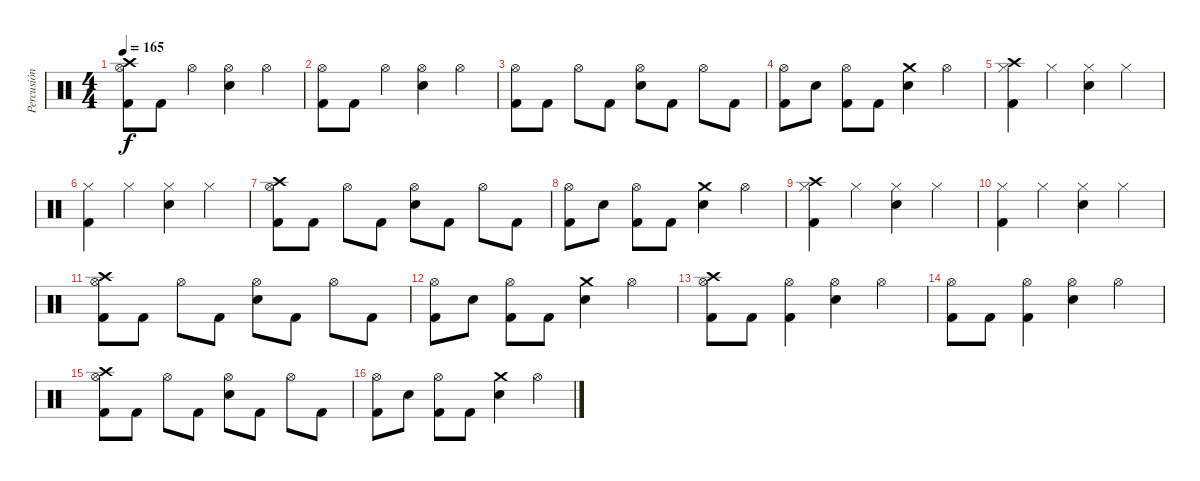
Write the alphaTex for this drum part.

\track ("Percusión" "Percusión") {instrument percussion}
\staff {score}
\articulation defaults
\ts (4 4)
\tempo 165
\clef neutral
\ks c
("Crash high (hit)" "Hi-Hat (open)" "Kick (hit) 2").8{dy f} "Kick (hit) 2".8 "Hi-Hat (open)".4 ("Hi-Hat (open)" "Snare (hit) 2").4 "Hi-Hat (open)".4 |
("Hi-Hat (open)" "Kick (hit) 2").8 "Kick (hit) 2".8 "Hi-Hat (open)".4 ("Hi-Hat (open)" "Snare (hit) 2").4 "Hi-Hat (open)".4 |
("Hi-Hat (open)" "Kick (hit) 2").8 "Kick (hit) 2".8 "Hi-Hat (open)".8 "Kick (hit) 2".8 ("Hi-Hat (open)" "Snare (hit) 2").8 "Kick (hit) 2".8 "Hi-Hat (open)".8 "Kick (hit) 2".8 |
("Hi-Hat (open)" "Kick (hit) 2").8 "Snare (hit) 2".8 ("Hi-Hat (open)" "Kick (hit) 2").8 "Kick (hit) 2".8 ("Crash medium (hit)" "Snare (hit) 2").4 "Hi-Hat (open)".4 |
("Crash high (hit)" "Hi-Hat (closed)" "Kick (hit) 2").4 "Hi-Hat (closed)".4 ("Hi-Hat (closed)" "Snare (hit) 2").4 "Hi-Hat (closed)".4 |
("Hi-Hat (closed)" "Kick (hit) 2").4 "Hi-Hat (closed)".4 ("Hi-Hat (closed)" "Snare (hit) 2").4 "Hi-Hat (closed)".4 |
("Crash high (hit)" "Hi-Hat (open)" "Kick (hit) 2").8 "Kick (hit) 2".8 "Hi-Hat (open)".8 "Kick (hit) 2".8 ("Hi-Hat (open)" "Snare (hit) 2").8 "Kick (hit) 2".8 "Hi-Hat (open)".8 "Kick (hit) 2".8 |
("Hi-Hat (open)" "Kick (hit) 2").8 "Snare (hit) 2".8 ("Hi-Hat (open)" "Kick (hit) 2").8 "Kick (hit) 2".8 ("Crash medium (hit)" "Snare (hit) 2").4 "Hi-Hat (open)".4 |
("Crash high (hit)" "Hi-Hat (closed)" "Kick (hit) 2").4 "Hi-Hat (closed)".4 ("Hi-Hat (closed)" "Snare (hit) 2").4 "Hi-Hat (closed)".4 |
("Hi-Hat (closed)" "Kick (hit) 2").4 "Hi-Hat (closed)".4 ("Hi-Hat (closed)" "Snare (hit) 2").4 "Hi-Hat (closed)".4 |
("Crash high (hit)" "Hi-Hat (open)" "Kick (hit) 2").8 "Kick (hit) 2".8 "Hi-Hat (open)".8 "Kick (hit) 2".8 ("Hi-Hat (open)" "Snare (hit) 2").8 "Kick (hit) 2".8 "Hi-Hat (open)".8 "Kick (hit) 2".8 |
("Hi-Hat (open)" "Kick (hit) 2").8 "Snare (hit) 2".8 ("Hi-Hat (open)" "Kick (hit) 2").8 "Kick (hit) 2".8 ("Crash medium (hit)" "Snare (hit) 2").4 "Hi-Hat (open)".4 |
("Crash high (hit)" "Hi-Hat (open)" "Kick (hit) 2").8 "Kick (hit) 2".8 ("Hi-Hat (open)" "Kick (hit) 2").4 ("Hi-Hat (open)" "Snare (hit) 2").4 "Hi-Hat (open)".4 |
("Hi-Hat (open)" "Kick (hit) 2").8 "Kick (hit) 2".8 ("Hi-Hat (open)" "Kick (hit) 2").4 ("Hi-Hat (open)" "Snare (hit) 2").4 "Hi-Hat (open)".4 |
("Crash high (hit)" "Hi-Hat (open)" "Kick (hit) 2").8 "Kick (hit) 2".8 "Hi-Hat (open)".8 "Kick (hit) 2".8 ("Hi-Hat (open)" "Snare (hit) 2").8 "Kick (hit) 2".8 "Hi-Hat (open)".8 "Kick (hit) 2".8 |
("Hi-Hat (open)" "Kick (hit) 2").8 "Snare (hit) 2".8 ("Hi-Hat (open)" "Kick (hit) 2").8 "Kick (hit) 2".8 ("Crash medium (hit)" "Snare (hit) 2").4 "Hi-Hat (open)".4
